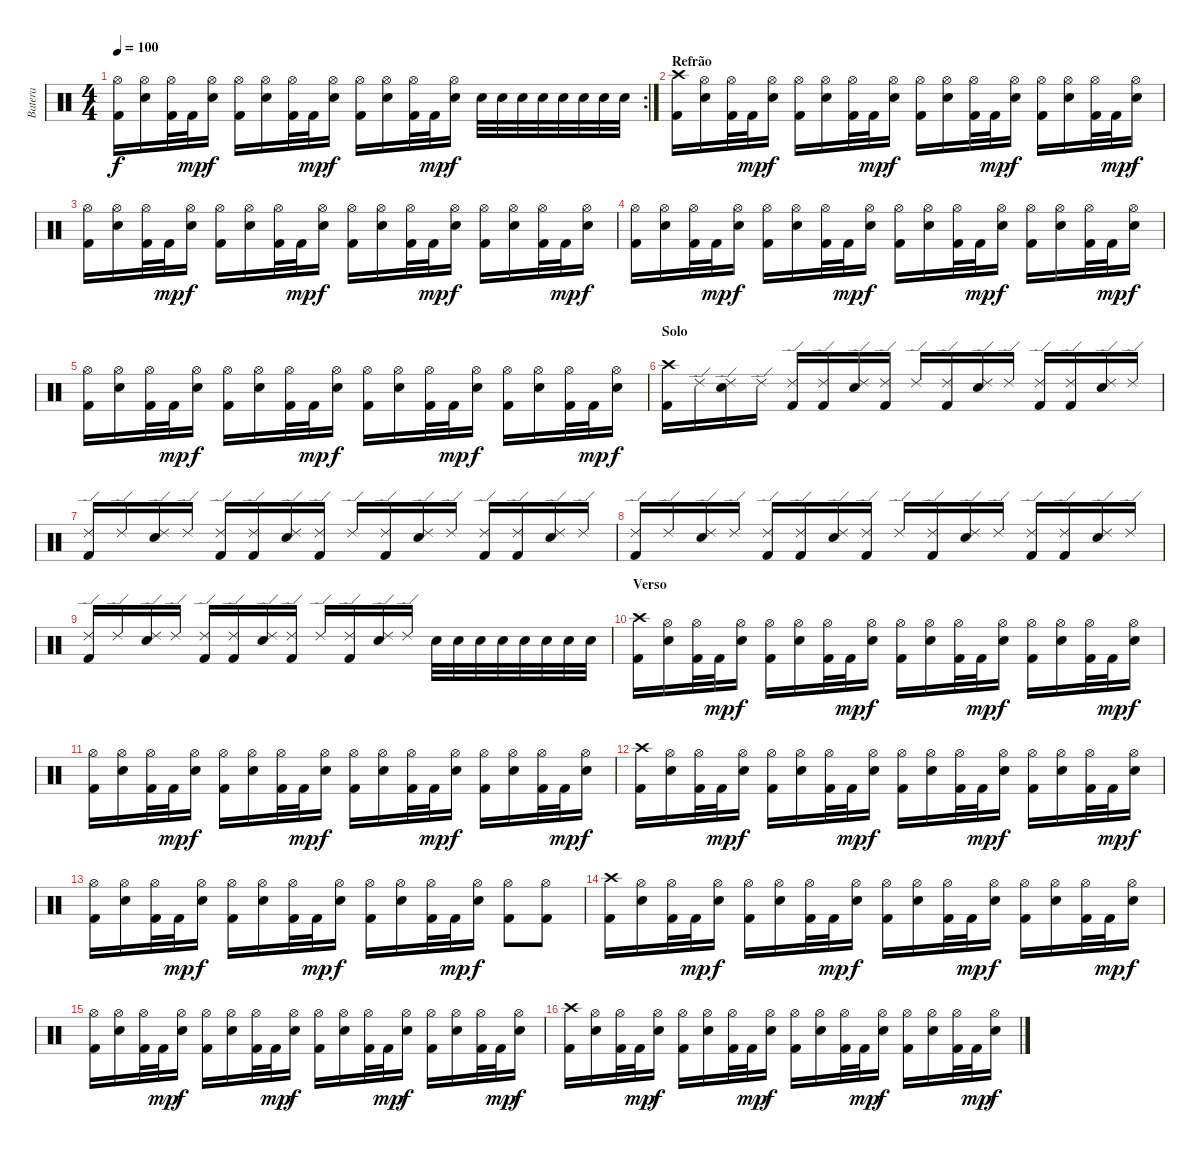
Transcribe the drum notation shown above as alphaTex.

\track ("Batera" "Batera") {instrument percussion}
\staff {score}
\articulation defaults
\rc 2
\ts (4 4)
\tempo 100
\clef neutral
\ks c
("Hi-Hat (open)" "Kick (hit) 2").16{dy f} ("Hi-Hat (open)" "Snare (hit) 2").16 ("Hi-Hat (open)" "Kick (hit) 2").32 "Kick (hit) 2".32{dy mp} ("Hi-Hat (open)" "Snare (hit) 2").16{dy f} ("Hi-Hat (open)" "Kick (hit) 2").16 ("Hi-Hat (open)" "Snare (hit) 2").16 ("Hi-Hat (open)" "Kick (hit) 2").32 "Kick (hit) 2".32{dy mp} ("Hi-Hat (open)" "Snare (hit) 2").16{dy f} ("Hi-Hat (open)" "Kick (hit) 2").16 ("Hi-Hat (open)" "Snare (hit) 2").16 ("Hi-Hat (open)" "Kick (hit) 2").32 "Kick (hit) 2".32{dy mp} ("Hi-Hat (open)" "Snare (hit) 2").16{dy f} "Snare (hit) 2".32 "Snare (hit) 2".32 "Snare (hit) 2".32 "Snare (hit) 2".32 "Snare (hit) 2".32 "Snare (hit) 2".32 "Snare (hit) 2".32 "Snare (hit) 2".32 |
\section ("" "Refrão")
("Crash high (hit)" "Kick (hit) 2").16 ("Hi-Hat (open)" "Snare (hit) 2").16 ("Hi-Hat (open)" "Kick (hit) 2").32 "Kick (hit) 2".32{dy mp} ("Hi-Hat (open)" "Snare (hit) 2").16{dy f} ("Hi-Hat (open)" "Kick (hit) 2").16 ("Hi-Hat (open)" "Snare (hit) 2").16 ("Hi-Hat (open)" "Kick (hit) 2").32 "Kick (hit) 2".32{dy mp} ("Hi-Hat (open)" "Snare (hit) 2").16{dy f} ("Hi-Hat (open)" "Kick (hit) 2").16 ("Hi-Hat (open)" "Snare (hit) 2").16 ("Hi-Hat (open)" "Kick (hit) 2").32 "Kick (hit) 2".32{dy mp} ("Hi-Hat (open)" "Snare (hit) 2").16{dy f} ("Hi-Hat (open)" "Kick (hit) 2").16 ("Hi-Hat (open)" "Snare (hit) 2").16 ("Hi-Hat (open)" "Kick (hit) 2").32 "Kick (hit) 2".32{dy mp} ("Hi-Hat (open)" "Snare (hit) 2").16{dy f} |
("Hi-Hat (open)" "Kick (hit) 2").16 ("Hi-Hat (open)" "Snare (hit) 2").16 ("Hi-Hat (open)" "Kick (hit) 2").32 "Kick (hit) 2".32{dy mp} ("Hi-Hat (open)" "Snare (hit) 2").16{dy f} ("Hi-Hat (open)" "Kick (hit) 2").16 ("Hi-Hat (open)" "Snare (hit) 2").16 ("Hi-Hat (open)" "Kick (hit) 2").32 "Kick (hit) 2".32{dy mp} ("Hi-Hat (open)" "Snare (hit) 2").16{dy f} ("Hi-Hat (open)" "Kick (hit) 2").16 ("Hi-Hat (open)" "Snare (hit) 2").16 ("Hi-Hat (open)" "Kick (hit) 2").32 "Kick (hit) 2".32{dy mp} ("Hi-Hat (open)" "Snare (hit) 2").16{dy f} ("Hi-Hat (open)" "Kick (hit) 2").16 ("Hi-Hat (open)" "Snare (hit) 2").16 ("Hi-Hat (open)" "Kick (hit) 2").32 "Kick (hit) 2".32{dy mp} ("Hi-Hat (open)" "Snare (hit) 2").16{dy f} |
("Hi-Hat (open)" "Kick (hit) 2").16 ("Hi-Hat (open)" "Snare (hit) 2").16 ("Hi-Hat (open)" "Kick (hit) 2").32 "Kick (hit) 2".32{dy mp} ("Hi-Hat (open)" "Snare (hit) 2").16{dy f} ("Hi-Hat (open)" "Kick (hit) 2").16 ("Hi-Hat (open)" "Snare (hit) 2").16 ("Hi-Hat (open)" "Kick (hit) 2").32 "Kick (hit) 2".32{dy mp} ("Hi-Hat (open)" "Snare (hit) 2").16{dy f} ("Hi-Hat (open)" "Kick (hit) 2").16 ("Hi-Hat (open)" "Snare (hit) 2").16 ("Hi-Hat (open)" "Kick (hit) 2").32 "Kick (hit) 2".32{dy mp} ("Hi-Hat (open)" "Snare (hit) 2").16{dy f} ("Hi-Hat (open)" "Kick (hit) 2").16 ("Hi-Hat (open)" "Snare (hit) 2").16 ("Hi-Hat (open)" "Kick (hit) 2").32 "Kick (hit) 2".32{dy mp} ("Hi-Hat (open)" "Snare (hit) 2").16{dy f} |
("Hi-Hat (open)" "Kick (hit) 2").16 ("Hi-Hat (open)" "Snare (hit) 2").16 ("Hi-Hat (open)" "Kick (hit) 2").32 "Kick (hit) 2".32{dy mp} ("Hi-Hat (open)" "Snare (hit) 2").16{dy f} ("Hi-Hat (open)" "Kick (hit) 2").16 ("Hi-Hat (open)" "Snare (hit) 2").16 ("Hi-Hat (open)" "Kick (hit) 2").32 "Kick (hit) 2".32{dy mp} ("Hi-Hat (open)" "Snare (hit) 2").16{dy f} ("Hi-Hat (open)" "Kick (hit) 2").16 ("Hi-Hat (open)" "Snare (hit) 2").16 ("Hi-Hat (open)" "Kick (hit) 2").32 "Kick (hit) 2".32{dy mp} ("Hi-Hat (open)" "Snare (hit) 2").16{dy f} ("Hi-Hat (open)" "Kick (hit) 2").16 ("Hi-Hat (open)" "Snare (hit) 2").16 ("Hi-Hat (open)" "Kick (hit) 2").32 "Kick (hit) 2".32{dy mp} ("Hi-Hat (open)" "Snare (hit) 2").16{dy f} |
\section ("" "Solo")
("Crash high (hit)" "Kick (hit) 2").16 "Ride (edge) 2".16 ("Ride (edge) 2" "Snare (hit) 2").16 "Ride (edge) 2".16 ("Ride (edge) 2" "Kick (hit) 2").16 ("Ride (edge) 2" "Kick (hit) 2").16 ("Ride (edge) 2" "Snare (hit) 2").16 ("Ride (edge) 2" "Kick (hit) 2").16 "Ride (edge) 2".16 ("Ride (edge) 2" "Kick (hit) 2").16 ("Ride (edge) 2" "Snare (hit) 2").16 "Ride (edge) 2".16 ("Ride (edge) 2" "Kick (hit) 2").16 ("Ride (edge) 2" "Kick (hit) 2").16 ("Ride (edge) 2" "Snare (hit) 2").16 "Ride (edge) 2".16 |
("Ride (edge) 2" "Kick (hit) 2").16 "Ride (edge) 2".16 ("Ride (edge) 2" "Snare (hit) 2").16 "Ride (edge) 2".16 ("Ride (edge) 2" "Kick (hit) 2").16 ("Ride (edge) 2" "Kick (hit) 2").16 ("Ride (edge) 2" "Snare (hit) 2").16 ("Ride (edge) 2" "Kick (hit) 2").16 "Ride (edge) 2".16 ("Ride (edge) 2" "Kick (hit) 2").16 ("Ride (edge) 2" "Snare (hit) 2").16 "Ride (edge) 2".16 ("Ride (edge) 2" "Kick (hit) 2").16 ("Ride (edge) 2" "Kick (hit) 2").16 ("Ride (edge) 2" "Snare (hit) 2").16 "Ride (edge) 2".16 |
("Ride (edge) 2" "Kick (hit) 2").16 "Ride (edge) 2".16 ("Ride (edge) 2" "Snare (hit) 2").16 "Ride (edge) 2".16 ("Ride (edge) 2" "Kick (hit) 2").16 ("Ride (edge) 2" "Kick (hit) 2").16 ("Ride (edge) 2" "Snare (hit) 2").16 ("Ride (edge) 2" "Kick (hit) 2").16 "Ride (edge) 2".16 ("Ride (edge) 2" "Kick (hit) 2").16 ("Ride (edge) 2" "Snare (hit) 2").16 "Ride (edge) 2".16 ("Ride (edge) 2" "Kick (hit) 2").16 ("Ride (edge) 2" "Kick (hit) 2").16 ("Ride (edge) 2" "Snare (hit) 2").16 "Ride (edge) 2".16 |
("Ride (edge) 2" "Kick (hit) 2").16 "Ride (edge) 2".16 ("Ride (edge) 2" "Snare (hit) 2").16 "Ride (edge) 2".16 ("Ride (edge) 2" "Kick (hit) 2").16 ("Ride (edge) 2" "Kick (hit) 2").16 ("Ride (edge) 2" "Snare (hit) 2").16 ("Ride (edge) 2" "Kick (hit) 2").16 "Ride (edge) 2".16 ("Ride (edge) 2" "Kick (hit) 2").16 ("Ride (edge) 2" "Snare (hit) 2").16 "Ride (edge) 2".16 "Snare (hit) 2".32 "Snare (hit) 2".32 "Snare (hit) 2".32 "Snare (hit) 2".32 "Snare (hit) 2".32 "Snare (hit) 2".32 "Snare (hit) 2".32 "Snare (hit) 2".32 |
\section ("" "Verso")
("Crash high (hit)" "Kick (hit) 2").16 ("Hi-Hat (open)" "Snare (hit) 2").16 ("Hi-Hat (open)" "Kick (hit) 2").32 "Kick (hit) 2".32{dy mp} ("Hi-Hat (open)" "Snare (hit) 2").16{dy f} ("Hi-Hat (open)" "Kick (hit) 2").16 ("Hi-Hat (open)" "Snare (hit) 2").16 ("Hi-Hat (open)" "Kick (hit) 2").32 "Kick (hit) 2".32{dy mp} ("Hi-Hat (open)" "Snare (hit) 2").16{dy f} ("Hi-Hat (open)" "Kick (hit) 2").16 ("Hi-Hat (open)" "Snare (hit) 2").16 ("Hi-Hat (open)" "Kick (hit) 2").32 "Kick (hit) 2".32{dy mp} ("Hi-Hat (open)" "Snare (hit) 2").16{dy f} ("Hi-Hat (open)" "Kick (hit) 2").16 ("Hi-Hat (open)" "Snare (hit) 2").16 ("Hi-Hat (open)" "Kick (hit) 2").32 "Kick (hit) 2".32{dy mp} ("Hi-Hat (open)" "Snare (hit) 2").16{dy f} |
("Hi-Hat (open)" "Kick (hit) 2").16 ("Hi-Hat (open)" "Snare (hit) 2").16 ("Hi-Hat (open)" "Kick (hit) 2").32 "Kick (hit) 2".32{dy mp} ("Hi-Hat (open)" "Snare (hit) 2").16{dy f} ("Hi-Hat (open)" "Kick (hit) 2").16 ("Hi-Hat (open)" "Snare (hit) 2").16 ("Hi-Hat (open)" "Kick (hit) 2").32 "Kick (hit) 2".32{dy mp} ("Hi-Hat (open)" "Snare (hit) 2").16{dy f} ("Hi-Hat (open)" "Kick (hit) 2").16 ("Hi-Hat (open)" "Snare (hit) 2").16 ("Hi-Hat (open)" "Kick (hit) 2").32 "Kick (hit) 2".32{dy mp} ("Hi-Hat (open)" "Snare (hit) 2").16{dy f} ("Hi-Hat (open)" "Kick (hit) 2").16 ("Hi-Hat (open)" "Snare (hit) 2").16 ("Hi-Hat (open)" "Kick (hit) 2").32 "Kick (hit) 2".32{dy mp} ("Hi-Hat (open)" "Snare (hit) 2").16{dy f} |
("Crash high (hit)" "Kick (hit) 2").16 ("Hi-Hat (open)" "Snare (hit) 2").16 ("Hi-Hat (open)" "Kick (hit) 2").32 "Kick (hit) 2".32{dy mp} ("Hi-Hat (open)" "Snare (hit) 2").16{dy f} ("Hi-Hat (open)" "Kick (hit) 2").16 ("Hi-Hat (open)" "Snare (hit) 2").16 ("Hi-Hat (open)" "Kick (hit) 2").32 "Kick (hit) 2".32{dy mp} ("Hi-Hat (open)" "Snare (hit) 2").16{dy f} ("Hi-Hat (open)" "Kick (hit) 2").16 ("Hi-Hat (open)" "Snare (hit) 2").16 ("Hi-Hat (open)" "Kick (hit) 2").32 "Kick (hit) 2".32{dy mp} ("Hi-Hat (open)" "Snare (hit) 2").16{dy f} ("Hi-Hat (open)" "Kick (hit) 2").16 ("Hi-Hat (open)" "Snare (hit) 2").16 ("Hi-Hat (open)" "Kick (hit) 2").32 "Kick (hit) 2".32{dy mp} ("Hi-Hat (open)" "Snare (hit) 2").16{dy f} |
("Hi-Hat (open)" "Kick (hit) 2").16 ("Hi-Hat (open)" "Snare (hit) 2").16 ("Hi-Hat (open)" "Kick (hit) 2").32 "Kick (hit) 2".32{dy mp} ("Hi-Hat (open)" "Snare (hit) 2").16{dy f} ("Hi-Hat (open)" "Kick (hit) 2").16 ("Hi-Hat (open)" "Snare (hit) 2").16 ("Hi-Hat (open)" "Kick (hit) 2").32 "Kick (hit) 2".32{dy mp} ("Hi-Hat (open)" "Snare (hit) 2").16{dy f} ("Hi-Hat (open)" "Kick (hit) 2").16 ("Hi-Hat (open)" "Snare (hit) 2").16 ("Hi-Hat (open)" "Kick (hit) 2").32 "Kick (hit) 2".32{dy mp} ("Hi-Hat (open)" "Snare (hit) 2").16{dy f} ("Hi-Hat (open)" "Kick (hit) 2").8 ("Hi-Hat (open)" "Kick (hit) 2").8 |
("Crash high (hit)" "Kick (hit) 2").16 ("Hi-Hat (open)" "Snare (hit) 2").16 ("Hi-Hat (open)" "Kick (hit) 2").32 "Kick (hit) 2".32{dy mp} ("Hi-Hat (open)" "Snare (hit) 2").16{dy f} ("Hi-Hat (open)" "Kick (hit) 2").16 ("Hi-Hat (open)" "Snare (hit) 2").16 ("Hi-Hat (open)" "Kick (hit) 2").32 "Kick (hit) 2".32{dy mp} ("Hi-Hat (open)" "Snare (hit) 2").16{dy f} ("Hi-Hat (open)" "Kick (hit) 2").16 ("Hi-Hat (open)" "Snare (hit) 2").16 ("Hi-Hat (open)" "Kick (hit) 2").32 "Kick (hit) 2".32{dy mp} ("Hi-Hat (open)" "Snare (hit) 2").16{dy f} ("Hi-Hat (open)" "Kick (hit) 2").16 ("Hi-Hat (open)" "Snare (hit) 2").16 ("Hi-Hat (open)" "Kick (hit) 2").32 "Kick (hit) 2".32{dy mp} ("Hi-Hat (open)" "Snare (hit) 2").16{dy f} |
("Hi-Hat (open)" "Kick (hit) 2").16 ("Hi-Hat (open)" "Snare (hit) 2").16 ("Hi-Hat (open)" "Kick (hit) 2").32 "Kick (hit) 2".32{dy mp} ("Hi-Hat (open)" "Snare (hit) 2").16{dy f} ("Hi-Hat (open)" "Kick (hit) 2").16 ("Hi-Hat (open)" "Snare (hit) 2").16 ("Hi-Hat (open)" "Kick (hit) 2").32 "Kick (hit) 2".32{dy mp} ("Hi-Hat (open)" "Snare (hit) 2").16{dy f} ("Hi-Hat (open)" "Kick (hit) 2").16 ("Hi-Hat (open)" "Snare (hit) 2").16 ("Hi-Hat (open)" "Kick (hit) 2").32 "Kick (hit) 2".32{dy mp} ("Hi-Hat (open)" "Snare (hit) 2").16{dy f} ("Hi-Hat (open)" "Kick (hit) 2").16 ("Hi-Hat (open)" "Snare (hit) 2").16 ("Hi-Hat (open)" "Kick (hit) 2").32 "Kick (hit) 2".32{dy mp} ("Hi-Hat (open)" "Snare (hit) 2").16{dy f} |
("Crash high (hit)" "Kick (hit) 2").16 ("Hi-Hat (open)" "Snare (hit) 2").16 ("Hi-Hat (open)" "Kick (hit) 2").32 "Kick (hit) 2".32{dy mp} ("Hi-Hat (open)" "Snare (hit) 2").16{dy f} ("Hi-Hat (open)" "Kick (hit) 2").16 ("Hi-Hat (open)" "Snare (hit) 2").16 ("Hi-Hat (open)" "Kick (hit) 2").32 "Kick (hit) 2".32{dy mp} ("Hi-Hat (open)" "Snare (hit) 2").16{dy f} ("Hi-Hat (open)" "Kick (hit) 2").16 ("Hi-Hat (open)" "Snare (hit) 2").16 ("Hi-Hat (open)" "Kick (hit) 2").32 "Kick (hit) 2".32{dy mp} ("Hi-Hat (open)" "Snare (hit) 2").16{dy f} ("Hi-Hat (open)" "Kick (hit) 2").16 ("Hi-Hat (open)" "Snare (hit) 2").16 ("Hi-Hat (open)" "Kick (hit) 2").32 "Kick (hit) 2".32{dy mp} ("Hi-Hat (open)" "Snare (hit) 2").16{dy f}
